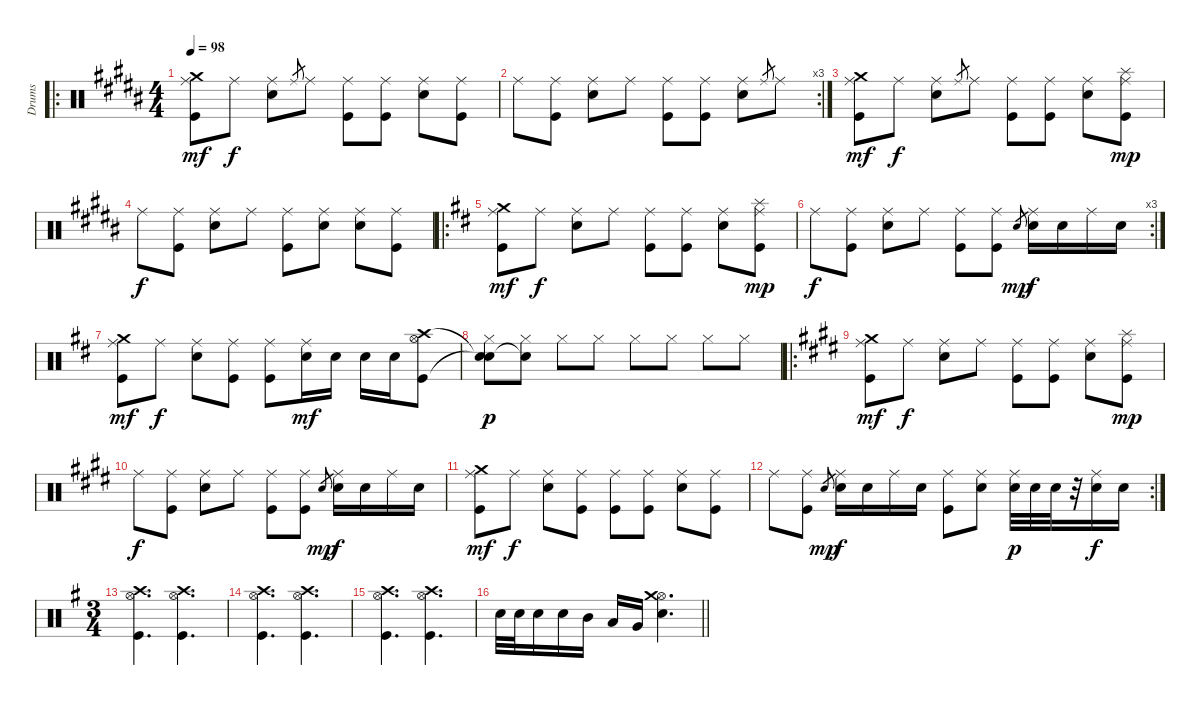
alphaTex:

\track ("Drums" "Drums") {instrument percussion}
\staff {score}
\articulation defaults
\ro
\ts (4 4)
\tempo 98
\clef neutral
\ks g#minor
("Crash medium (hit)" "Ride (middle)" "Kick (hit)").8{dy mf} "Ride (middle)".8{dy f} ("Ride (middle)" "Electric Snare (hit)").8 "Ride (middle)".8{gr} "Ride (middle)".8 ("Ride (middle)" "Kick (hit)").8 ("Ride (middle)" "Kick (hit)").8 ("Ride (middle)" "Electric Snare (hit)").8 ("Ride (middle)" "Kick (hit)").8 |
\rc 3 "Ride (middle)".8
("Ride (middle)" "Kick (hit)").8 ("Ride (middle)" "Electric Snare (hit)").8 "Ride (middle)".8 ("Ride (middle)" "Kick (hit)").8 ("Ride (middle)" "Kick (hit)").8 ("Ride (middle)" "Electric Snare (hit)").8 "Ride (middle)".8{gr} "Ride (middle)".8 |
("Crash medium (hit)" "Ride (middle)" "Kick (hit)").8{dy mf} "Ride (middle)".8{dy f} ("Ride (middle)" "Electric Snare (hit)").8 "Ride (middle)".8{gr} "Ride (middle)".8 ("Ride (middle)" "Kick (hit)").8 ("Ride (middle)" "Kick (hit)").8 ("Ride (middle)" "Electric Snare (hit)").8 ("Splash (hit)" "Ride (middle)" "Kick (hit)").8{dy mp} |
"Ride (middle)".8{dy f} ("Ride (middle)" "Kick (hit)").8 ("Ride (middle)" "Electric Snare (hit)").8 "Ride (middle)".8 ("Ride (middle)" "Kick (hit)").8 ("Ride (middle)" "Electric Snare (hit)").8 ("Ride (middle)" "Electric Snare (hit)").8 ("Ride (middle)" "Kick (hit)").8 |
\ro
\ks d
("Crash medium (hit)" "Ride (middle)" "Kick (hit)").8{dy mf} "Ride (middle)".8{dy f} ("Ride (middle)" "Electric Snare (hit)").8 "Ride (middle)".8 ("Ride (middle)" "Kick (hit)").8 ("Ride (middle)" "Kick (hit)").8 ("Ride (middle)" "Electric Snare (hit)").8 ("Splash (hit)" "Ride (middle)" "Kick (hit)").8{dy mp} |
\rc 3 "Ride (middle)".8{dy f}
("Ride (middle)" "Kick (hit)").8 ("Ride (middle)" "Electric Snare (hit)").8 "Ride (middle)".8 ("Ride (middle)" "Kick (hit)").8 ("Ride (middle)" "Kick (hit)").8 "Electric Snare (hit)".8{gr dy mp} ("Ride (middle)" "Electric Snare (hit)").16{dy f} "Electric Snare (hit)".16 "Ride (middle)".16 "Electric Snare (hit)".16 |
("Crash medium (hit)" "Ride (middle)" "Kick (hit)").8{dy mf} "Ride (middle)".8{dy f} ("Ride (middle)" "Electric Snare (hit)").8 ("Ride (middle)" "Kick (hit)").8 ("Ride (middle)" "Kick (hit)").8 ("Ride (middle)" "Electric Snare (hit)").16{dy mf} "Electric Snare (hit)".16 "Electric Snare (hit)".16 "Electric Snare (hit)".16 ("Crash high (hit)" "Hi-Hat (open)" "Kick (hit)").8 |
("Snare (hit)"{t} "Hi-Hat (closed)" "Snare (hit)"{t}).8{dy p} ("Snare (hit)"{t} "Hi-Hat (closed)").8 "Hi-Hat (closed)".8 "Hi-Hat (closed)".8 "Hi-Hat (closed)".8 "Hi-Hat (closed)".8 "Hi-Hat (closed)".8 "Hi-Hat (closed)".8 |
\ro
\ks c#minor
("Crash medium (hit)" "Ride (middle)" "Kick (hit)").8{dy mf} "Ride (middle)".8{dy f} ("Ride (middle)" "Electric Snare (hit)").8 "Ride (middle)".8 ("Ride (middle)" "Kick (hit)").8 ("Ride (middle)" "Kick (hit)").8 ("Ride (middle)" "Electric Snare (hit)").8 ("Splash (hit)" "Ride (middle)" "Kick (hit)").8{dy mp} |
"Ride (middle)".8{dy f} ("Ride (middle)" "Kick (hit)").8 ("Ride (middle)" "Electric Snare (hit)").8 "Ride (middle)".8 ("Ride (middle)" "Kick (hit)").8 ("Ride (middle)" "Kick (hit)").8 "Electric Snare (hit)".8{gr dy mp} ("Ride (middle)" "Electric Snare (hit)").16{dy f} "Electric Snare (hit)".16 "Ride (middle)".16 "Electric Snare (hit)".16 |
("Crash medium (hit)" "Ride (middle)" "Kick (hit)").8{dy mf} "Ride (middle)".8{dy f} ("Ride (middle)" "Electric Snare (hit)").8 ("Ride (middle)" "Kick (hit)").8 ("Ride (middle)" "Kick (hit)").8 ("Ride (middle)" "Kick (hit)").8 ("Ride (middle)" "Electric Snare (hit)").8 ("Ride (middle)" "Kick (hit)").8 |
\rc 2 "Ride (middle)".8
("Ride (middle)" "Kick (hit)").8 "Electric Snare (hit)".8{gr dy mp} ("Ride (middle)" "Electric Snare (hit)").16{dy f} "Electric Snare (hit)".16 "Ride (middle)".16 "Electric Snare (hit)".16 ("Ride (middle)" "Kick (hit)").8 ("Ride (middle)" "Electric Snare (hit)").8 ("Ride (middle)" "Electric Snare (hit)").32{dy p} "Electric Snare (hit)".32 "Electric Snare (hit)".32 r.32 ("Ride (middle)" "Electric Snare (hit)").16{dy f} "Electric Snare (hit)".16 |
\ts (3 4)
\ks eminor
("Crash high (hit)" "Hi-Hat (open)" "Kick (hit)").4{d} ("Crash high (hit)" "Hi-Hat (open)" "Kick (hit)").4{d} |
("Crash high (hit)" "Hi-Hat (open)" "Kick (hit)").4{d} ("Crash high (hit)" "Hi-Hat (open)" "Kick (hit)").4{d} |
("Crash high (hit)" "Hi-Hat (open)" "Kick (hit)").4{d} ("Crash high (hit)" "Hi-Hat (open)" "Kick (hit)").4{d} |
\barLineRight lightlight "Electric Snare (hit)".32 "Electric Snare (hit)".32 "Electric Snare (hit)".16 "Electric Snare (hit)".16 "Mid Tom (hit)".16 "Low Tom (hit)".16 "Very Low Tom (hit)".16
("Hi-Hat (open)" "Crash medium (hit)" "Electric Snare (hit)").4{d}
